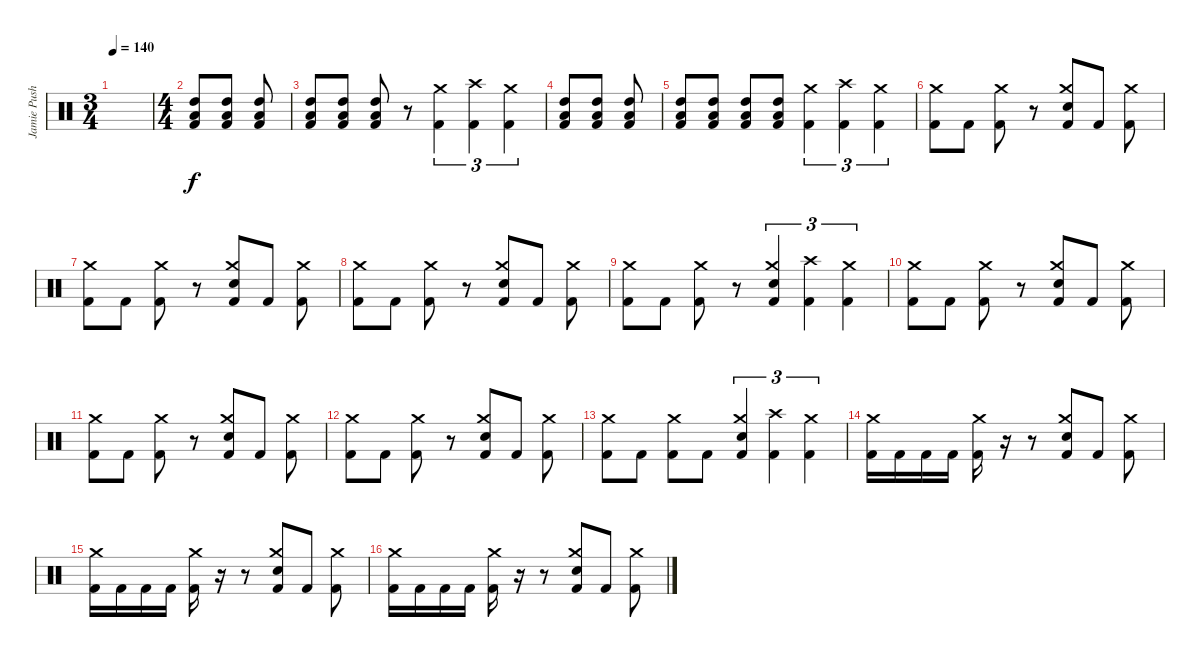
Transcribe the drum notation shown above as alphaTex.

\track ("Jamie Pushbutton" "Jamie Push") {instrument percussion}
\staff {score}
\articulation defaults
\ts (3 4)
\tempo 140
\clef neutral
\ks c
|
\ts (4 4)
("High Tom (hit)" "Low Tom (hit)" "Kick (hit) 2").8 ("High Tom (hit)" "Low Tom (hit)" "Kick (hit) 2").8 ("High Tom (hit)" "Low Tom (hit)" "Kick (hit) 2").8 |
("High Tom (hit)" "Low Tom (hit)" "Kick (hit) 2").8 ("High Tom (hit)" "Low Tom (hit)" "Kick (hit) 2").8 ("High Tom (hit)" "Low Tom (hit)" "Kick (hit) 2").8 r.8 ("Crash medium (hit)" "Kick (hit) 2").4{tu (3 2)} ("Crash high (hit)" "Kick (hit) 2").4{tu (3 2)} ("Crash medium (hit)" "Kick (hit) 2").4{tu (3 2)} |
("High Tom (hit)" "Low Tom (hit)" "Kick (hit) 2").8 ("High Tom (hit)" "Low Tom (hit)" "Kick (hit) 2").8 ("High Tom (hit)" "Low Tom (hit)" "Kick (hit) 2").8 |
("High Tom (hit)" "Low Tom (hit)" "Kick (hit) 2").8 ("High Tom (hit)" "Low Tom (hit)" "Kick (hit) 2").8 ("High Tom (hit)" "Low Tom (hit)" "Kick (hit) 2").8 ("High Tom (hit)" "Low Tom (hit)" "Kick (hit) 2").8 ("Crash medium (hit)" "Kick (hit) 2").4{tu (3 2)} ("Crash high (hit)" "Kick (hit) 2").4{tu (3 2)} ("Crash medium (hit)" "Kick (hit) 2").4{tu (3 2)} |
("Crash medium (hit)" "Kick (hit) 2").8 "Kick (hit) 2".8 ("Crash medium (hit)" "Kick (hit) 2").8 r.8 ("Crash medium (hit)" "Electric Snare (hit)" "Kick (hit) 2").8 "Kick (hit) 2".8 ("Crash medium (hit)" "Kick (hit) 2").8 |
("Crash medium (hit)" "Kick (hit) 2").8 "Kick (hit) 2".8 ("Crash medium (hit)" "Kick (hit) 2").8 r.8 ("Crash medium (hit)" "Electric Snare (hit)" "Kick (hit) 2").8 "Kick (hit) 2".8 ("Crash medium (hit)" "Kick (hit) 2").8 |
("Crash medium (hit)" "Kick (hit) 2").8 "Kick (hit) 2".8 ("Crash medium (hit)" "Kick (hit) 2").8 r.8 ("Crash medium (hit)" "Electric Snare (hit)" "Kick (hit) 2").8 "Kick (hit) 2".8 ("Crash medium (hit)" "Kick (hit) 2").8 |
("Crash medium (hit)" "Kick (hit) 2").8 "Kick (hit) 2".8 ("Crash medium (hit)" "Kick (hit) 2").8 r.8 ("Crash medium (hit)" "Electric Snare (hit)" "Kick (hit) 2").4{tu (3 2)} ("Crash high (hit)" "Kick (hit) 2").4{tu (3 2)} ("Crash medium (hit)" "Kick (hit) 2").4{tu (3 2)} |
("Crash medium (hit)" "Kick (hit) 2").8 "Kick (hit) 2".8 ("Crash medium (hit)" "Kick (hit) 2").8 r.8 ("Crash medium (hit)" "Electric Snare (hit)" "Kick (hit) 2").8 "Kick (hit) 2".8 ("Crash medium (hit)" "Kick (hit) 2").8 |
("Crash medium (hit)" "Kick (hit) 2").8 "Kick (hit) 2".8 ("Crash medium (hit)" "Kick (hit) 2").8 r.8 ("Crash medium (hit)" "Electric Snare (hit)" "Kick (hit) 2").8 "Kick (hit) 2".8 ("Crash medium (hit)" "Kick (hit) 2").8 |
("Crash medium (hit)" "Kick (hit) 2").8 "Kick (hit) 2".8 ("Crash medium (hit)" "Kick (hit) 2").8 r.8 ("Crash medium (hit)" "Electric Snare (hit)" "Kick (hit) 2").8 "Kick (hit) 2".8 ("Crash medium (hit)" "Kick (hit) 2").8 |
("Crash medium (hit)" "Kick (hit) 2").8 "Kick (hit) 2".8 ("Crash medium (hit)" "Kick (hit) 2").8 "Kick (hit) 2".8 ("Crash medium (hit)" "Electric Snare (hit)" "Kick (hit) 2").4{tu (3 2)} ("Crash high (hit)" "Kick (hit) 2").4{tu (3 2)} ("Crash medium (hit)" "Kick (hit) 2").4{tu (3 2)} |
("Crash medium (hit)" "Kick (hit) 2").16 "Kick (hit) 2".16 "Kick (hit) 2".16 "Kick (hit) 2".16 ("Crash medium (hit)" "Kick (hit) 2").16 r.16 r.8 ("Crash medium (hit)" "Electric Snare (hit)" "Kick (hit) 2").8 "Kick (hit) 2".8 ("Crash medium (hit)" "Kick (hit) 2").8 |
("Crash medium (hit)" "Kick (hit) 2").16 "Kick (hit) 2".16 "Kick (hit) 2".16 "Kick (hit) 2".16 ("Crash medium (hit)" "Kick (hit) 2").16 r.16 r.8 ("Crash medium (hit)" "Electric Snare (hit)" "Kick (hit) 2").8 "Kick (hit) 2".8 ("Crash medium (hit)" "Kick (hit) 2").8 |
("Crash medium (hit)" "Kick (hit) 2").16 "Kick (hit) 2".16 "Kick (hit) 2".16 "Kick (hit) 2".16 ("Crash medium (hit)" "Kick (hit) 2").16 r.16 r.8 ("Crash medium (hit)" "Electric Snare (hit)" "Kick (hit) 2").8 "Kick (hit) 2".8 ("Crash medium (hit)" "Kick (hit) 2").8
